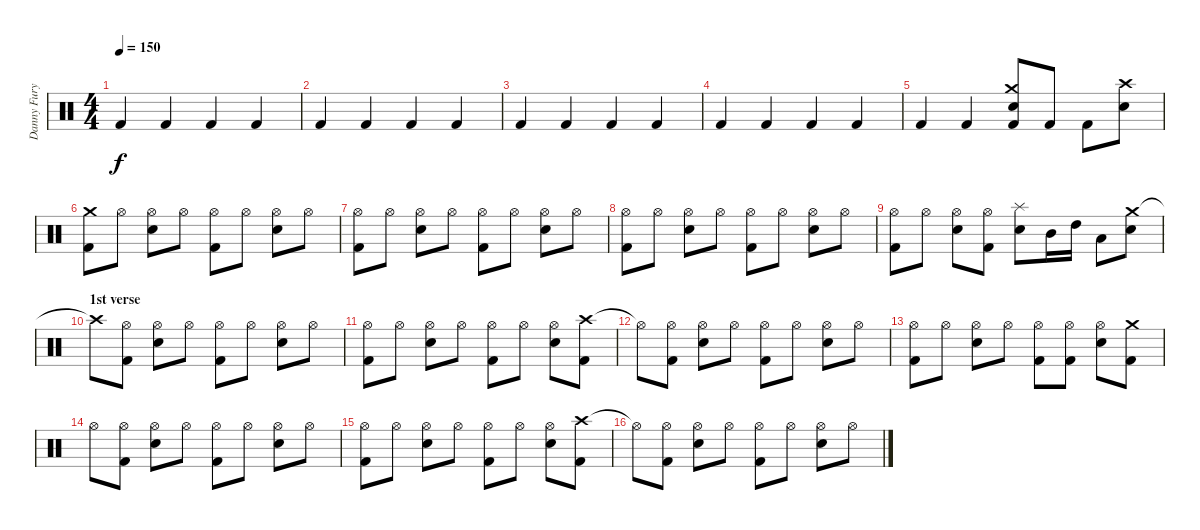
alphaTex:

\track ("Danny Fury" "Danny Fury") {instrument percussion}
\staff {score}
\articulation defaults
\ts (4 4)
\tempo 150
\clef neutral
\ks c "Kick (hit) 2".4{dy f} "Kick (hit) 2".4 "Kick (hit) 2".4 "Kick (hit) 2".4
|
"Kick (hit) 2".4 "Kick (hit) 2".4 "Kick (hit) 2".4 "Kick (hit) 2".4 |
"Kick (hit) 2".4 "Kick (hit) 2".4 "Kick (hit) 2".4 "Kick (hit) 2".4 |
"Kick (hit) 2".4 "Kick (hit) 2".4 "Kick (hit) 2".4 "Kick (hit) 2".4 |
"Kick (hit) 2".4 "Kick (hit) 2".4 ("Crash medium (hit)" "Electric Snare (hit)" "Kick (hit) 2").8 "Kick (hit) 2".8 "Kick (hit) 2".8 ("Crash high (hit)" "Electric Snare (hit)").8 |
("Crash medium (hit)" "Kick (hit) 2").8 "Hi-Hat (open)".8 ("Hi-Hat (open)" "Electric Snare (hit)").8 "Hi-Hat (open)".8 ("Hi-Hat (open)" "Kick (hit) 2").8 "Hi-Hat (open)".8 ("Hi-Hat (open)" "Electric Snare (hit)").8 "Hi-Hat (open)".8 |
("Hi-Hat (open)" "Kick (hit) 2").8 "Hi-Hat (open)".8 ("Hi-Hat (open)" "Electric Snare (hit)").8 "Hi-Hat (open)".8 ("Hi-Hat (open)" "Kick (hit) 2").8 "Hi-Hat (open)".8 ("Hi-Hat (open)" "Electric Snare (hit)").8 "Hi-Hat (open)".8 |
("Hi-Hat (open)" "Kick (hit) 2").8 "Hi-Hat (open)".8 ("Hi-Hat (open)" "Electric Snare (hit)").8 "Hi-Hat (open)".8 ("Hi-Hat (open)" "Kick (hit) 2").8 "Hi-Hat (open)".8 ("Hi-Hat (open)" "Electric Snare (hit)").8 "Hi-Hat (open)".8 |
("Hi-Hat (open)" "Kick (hit) 2").8 "Hi-Hat (open)".8 ("Hi-Hat (open)" "Electric Snare (hit)").8 ("Hi-Hat (open)" "Kick (hit) 2").8 ("Splash (hit)" "Electric Snare (hit)").8 "Mid Tom (hit)".16 "High Tom (hit)".16 "Low Floor Tom (hit)".8 ("Crash medium (hit)" "Electric Snare (hit)").8 |
\section ("" "1st verse")
"Crash high (hit)"{t}.8 ("Hi-Hat (open)" "Kick (hit) 2").8 ("Hi-Hat (open)" "Electric Snare (hit)").8 "Hi-Hat (open)".8 ("Hi-Hat (open)" "Kick (hit) 2").8 "Hi-Hat (open)".8 ("Hi-Hat (open)" "Electric Snare (hit)").8 "Hi-Hat (open)".8 |
("Hi-Hat (open)" "Kick (hit) 2").8 "Hi-Hat (open)".8 ("Hi-Hat (open)" "Electric Snare (hit)").8 "Hi-Hat (open)".8 ("Hi-Hat (open)" "Kick (hit) 2").8 "Hi-Hat (open)".8 ("Hi-Hat (open)" "Electric Snare (hit)").8 ("Crash high (hit)" "Kick (hit) 2").8 |
"Hi-Hat (open)"{t}.8 ("Hi-Hat (open)" "Kick (hit) 2").8 ("Hi-Hat (open)" "Electric Snare (hit)").8 "Hi-Hat (open)".8 ("Hi-Hat (open)" "Kick (hit) 2").8 "Hi-Hat (open)".8 ("Hi-Hat (open)" "Electric Snare (hit)").8 "Hi-Hat (open)".8 |
("Hi-Hat (open)" "Kick (hit) 2").8 "Hi-Hat (open)".8 ("Hi-Hat (open)" "Electric Snare (hit)").8 "Hi-Hat (open)".8 ("Hi-Hat (open)" "Kick (hit) 2").8 ("Hi-Hat (open)" "Kick (hit) 2").8 ("Hi-Hat (open)" "Electric Snare (hit)").8 ("Crash medium (hit)" "Kick (hit) 2").8 |
"Hi-Hat (open)".8 ("Hi-Hat (open)" "Kick (hit) 2").8 ("Hi-Hat (open)" "Electric Snare (hit)").8 "Hi-Hat (open)".8 ("Hi-Hat (open)" "Kick (hit) 2").8 "Hi-Hat (open)".8 ("Hi-Hat (open)" "Electric Snare (hit)").8 "Hi-Hat (open)".8 |
("Hi-Hat (open)" "Kick (hit) 2").8 "Hi-Hat (open)".8 ("Hi-Hat (open)" "Electric Snare (hit)").8 "Hi-Hat (open)".8 ("Hi-Hat (open)" "Kick (hit) 2").8 "Hi-Hat (open)".8 ("Hi-Hat (open)" "Electric Snare (hit)").8 ("Crash high (hit)" "Kick (hit) 2").8 |
"Hi-Hat (open)"{t}.8 ("Hi-Hat (open)" "Kick (hit) 2").8 ("Hi-Hat (open)" "Electric Snare (hit)").8 "Hi-Hat (open)".8 ("Hi-Hat (open)" "Kick (hit) 2").8 "Hi-Hat (open)".8 ("Hi-Hat (open)" "Electric Snare (hit)").8 "Hi-Hat (open)".8
